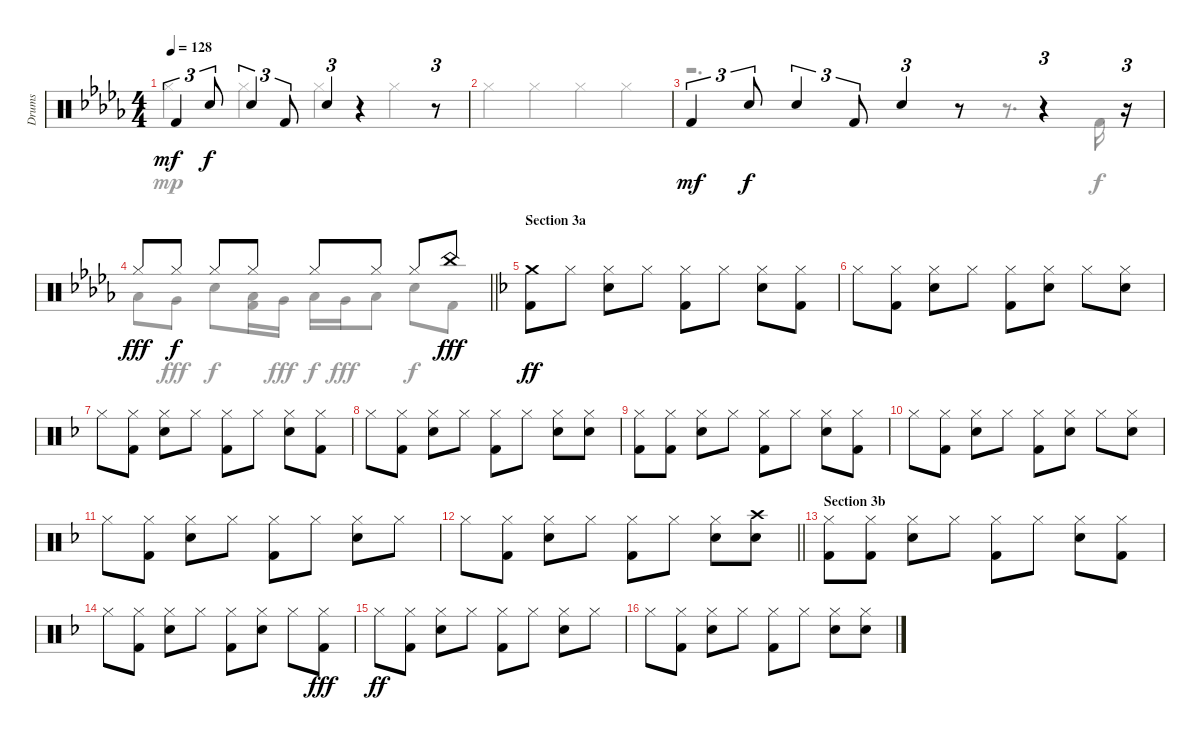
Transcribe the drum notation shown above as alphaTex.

\track ("Drums" "Drums") {instrument percussion}
\staff {score}
\articulation defaults
\voice
\ts (4 4)
\tempo 128
\clef neutral
\ks db "Kick (hit) 2".4{tu (3 2) dy mf} "Snare (hit) 2".8{tu (3 2) dy f} "Snare (hit) 2".4{tu (3 2)} "Kick (hit) 2".8{tu (3 2)} "Snare (hit) 2".4{tu (3 2)}
r.4 r.8{tu (3 2)} |
|
"Kick (hit) 2".4{tu (3 2) dy mf} "Snare (hit) 2".8{tu (3 2) dy f} "Snare (hit) 2".4{tu (3 2)} "Kick (hit) 2".8{tu (3 2)} "Snare (hit) 2".4{tu (3 2)} r.8 r.4{tu (3 2)} r.16{tu (3 2)} |
\barLineRight lightlight "Hi-Hat (closed)".8{dy fff volume 9} "Hi-Hat (closed)".8{dy f} "Hi-Hat (closed)".8 "Hi-Hat (closed)".8 "Hi-Hat (closed)".8 "Hi-Hat (closed)".8 "Hi-Hat (closed)".8 "China (hit)".8{dy fff}
|
\section ("" "Section 3a")
\ks f
("Crash medium (hit)" "Kick (hit) 2").8{dy ff volume 7} "Hi-Hat (closed)".8 ("Hi-Hat (closed)" "Snare (hit) 2").8 "Hi-Hat (closed)".8 ("Hi-Hat (closed)" "Kick (hit) 2").8 "Hi-Hat (closed)".8 ("Hi-Hat (closed)" "Snare (hit) 2").8 ("Hi-Hat (closed)" "Kick (hit) 2").8 |
"Hi-Hat (closed)".8 ("Hi-Hat (closed)" "Kick (hit) 2").8 ("Hi-Hat (closed)" "Snare (hit) 2").8 "Hi-Hat (closed)".8 ("Hi-Hat (closed)" "Kick (hit) 2").8 ("Hi-Hat (closed)" "Snare (hit) 2").8 "Hi-Hat (closed)".8 ("Hi-Hat (closed)" "Snare (hit) 2").8 |
"Hi-Hat (closed)".8 ("Hi-Hat (closed)" "Kick (hit) 2").8 ("Hi-Hat (closed)" "Snare (hit) 2").8 "Hi-Hat (closed)".8 ("Hi-Hat (closed)" "Kick (hit) 2").8 "Hi-Hat (closed)".8 ("Hi-Hat (closed)" "Snare (hit) 2").8 ("Hi-Hat (closed)" "Kick (hit) 2").8 |
"Hi-Hat (closed)".8 ("Hi-Hat (closed)" "Kick (hit) 2").8 ("Hi-Hat (closed)" "Snare (hit) 2").8 "Hi-Hat (closed)".8 ("Hi-Hat (closed)" "Kick (hit) 2").8 "Hi-Hat (closed)".8 ("Hi-Hat (closed)" "Snare (hit) 2").8 ("Hi-Hat (closed)" "Snare (hit) 2").8 |
("Hi-Hat (closed)" "Kick (hit) 2").8 ("Hi-Hat (closed)" "Kick (hit) 2").8 ("Hi-Hat (closed)" "Snare (hit) 2").8 "Hi-Hat (closed)".8 ("Hi-Hat (closed)" "Kick (hit) 2").8 "Hi-Hat (closed)".8 ("Hi-Hat (closed)" "Snare (hit) 2").8 ("Hi-Hat (closed)" "Kick (hit) 2").8 |
"Hi-Hat (closed)".8 ("Hi-Hat (closed)" "Kick (hit) 2").8 ("Hi-Hat (closed)" "Snare (hit) 2").8 "Hi-Hat (closed)".8 ("Hi-Hat (closed)" "Kick (hit) 2").8 ("Hi-Hat (closed)" "Snare (hit) 2").8 "Hi-Hat (closed)".8 ("Hi-Hat (closed)" "Snare (hit) 2").8 |
"Hi-Hat (closed)".8 ("Hi-Hat (closed)" "Kick (hit) 2").8 ("Hi-Hat (closed)" "Snare (hit) 2").8 "Hi-Hat (closed)".8 ("Hi-Hat (closed)" "Kick (hit) 2").8 "Hi-Hat (closed)".8 ("Hi-Hat (closed)" "Snare (hit) 2").8 "Hi-Hat (closed)".8 |
\barLineRight lightlight "Hi-Hat (closed)".8
("Hi-Hat (closed)" "Kick (hit) 2").8 ("Hi-Hat (closed)" "Snare (hit) 2").8 "Hi-Hat (closed)".8 ("Hi-Hat (closed)" "Kick (hit) 2").8 "Hi-Hat (closed)".8 ("Hi-Hat (closed)" "Snare (hit) 2").8 ("Crash high (hit)" "Snare (hit) 2").8 |
\section ("" "Section 3b")
("Hi-Hat (closed)" "Kick (hit) 2").8 ("Hi-Hat (closed)" "Kick (hit) 2").8 ("Hi-Hat (closed)" "Snare (hit) 2").8 "Hi-Hat (closed)".8 ("Hi-Hat (closed)" "Kick (hit) 2").8 "Hi-Hat (closed)".8 ("Hi-Hat (closed)" "Snare (hit) 2").8 ("Hi-Hat (closed)" "Kick (hit) 2").8 |
"Hi-Hat (closed)".8 ("Hi-Hat (closed)" "Kick (hit) 2").8 ("Hi-Hat (closed)" "Snare (hit) 2").8 "Hi-Hat (closed)".8 ("Hi-Hat (closed)" "Kick (hit) 2").8 ("Hi-Hat (closed)" "Snare (hit) 2").8 "Hi-Hat (closed)".8 ("Hi-Hat (closed)" "Kick (hit) 2").8{dy fff} |
"Hi-Hat (closed)".8{dy ff} ("Hi-Hat (closed)" "Kick (hit) 2").8 ("Hi-Hat (closed)" "Snare (hit) 2").8 "Hi-Hat (closed)".8 ("Hi-Hat (closed)" "Kick (hit) 2").8 "Hi-Hat (closed)".8 ("Hi-Hat (closed)" "Snare (hit) 2").8 "Hi-Hat (closed)".8 |
"Hi-Hat (closed)".8 ("Hi-Hat (closed)" "Kick (hit) 2").8 ("Hi-Hat (closed)" "Snare (hit) 2").8 "Hi-Hat (closed)".8 ("Hi-Hat (closed)" "Kick (hit) 2").8 "Hi-Hat (closed)".8 ("Hi-Hat (closed)" "Snare (hit) 2").8 ("Hi-Hat (closed)" "Snare (hit) 2").8
\voice
\clef neutral
\ottava regular
\simile none
\ks db "Hi-Hat (closed)".4{dy mp} "Hi-Hat (closed)".4 "Hi-Hat (closed)".4 "Hi-Hat (closed)".4
|
"Hi-Hat (closed)".4 "Hi-Hat (closed)".4 "Hi-Hat (closed)".4 "Hi-Hat (closed)".4 |
r.2{d} r.8{d} "Kick (hit) 2".16{dy f} |
\barLineRight lightlight "Low Tom (hit)".8 "Very Low Tom (hit)".8{dy fff} "Snare (hit) 2".8{dy f}
("Low Tom (hit)" "Kick (hit) 2").16 "Very Low Tom (hit)".16{dy fff} "Low Tom (hit)".16{dy f} "Very Low Tom (hit)".16{dy fff} "Low Floor Tom (hit)".8 "Snare (hit) 2".8{dy f} "Kick (hit) 2".8 |
\ks f
|
|
|
|
|
|
|
\barLineRight lightlight
|
|
|
|
